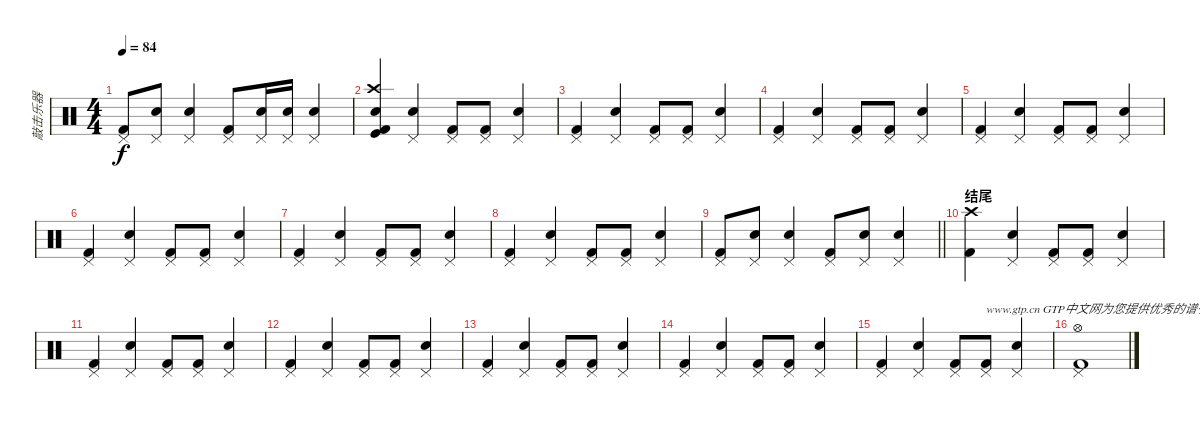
\track ("敲击乐器" "敲击乐器") {instrument percussion}
\staff {score}
\articulation defaults
\ts (4 4)
\tempo 84
\clef neutral
\ks c
("Kick (hit) 2" "Pedal Hi-Hat (hit)").8{dy f} ("Snare (hit) 2" "Pedal Hi-Hat (hit)").8 ("Snare (hit) 2" "Pedal Hi-Hat (hit)").4 ("Kick (hit) 2" "Pedal Hi-Hat (hit)").8 ("Snare (hit) 2" "Pedal Hi-Hat (hit)").16 ("Snare (hit) 2" "Pedal Hi-Hat (hit)").16 ("Snare (hit) 2" "Pedal Hi-Hat (hit)").4 |
("Kick (hit) 2" "Crash high (hit)" "Kick (hit)" "Metronome (bell)").4 ("Snare (hit) 2" "Pedal Hi-Hat (hit)").4 ("Kick (hit) 2" "Pedal Hi-Hat (hit)").8 ("Kick (hit) 2" "Pedal Hi-Hat (hit)").8 ("Snare (hit) 2" "Pedal Hi-Hat (hit)").4 |
("Kick (hit) 2" "Pedal Hi-Hat (hit)").4 ("Snare (hit) 2" "Pedal Hi-Hat (hit)").4 ("Kick (hit) 2" "Pedal Hi-Hat (hit)").8 ("Kick (hit) 2" "Pedal Hi-Hat (hit)").8 ("Snare (hit) 2" "Pedal Hi-Hat (hit)").4 |
("Kick (hit) 2" "Pedal Hi-Hat (hit)").4 ("Snare (hit) 2" "Pedal Hi-Hat (hit)").4 ("Kick (hit) 2" "Pedal Hi-Hat (hit)").8 ("Kick (hit) 2" "Pedal Hi-Hat (hit)").8 ("Snare (hit) 2" "Pedal Hi-Hat (hit)").4 |
("Kick (hit) 2" "Pedal Hi-Hat (hit)").4 ("Snare (hit) 2" "Pedal Hi-Hat (hit)").4 ("Kick (hit) 2" "Pedal Hi-Hat (hit)").8 ("Kick (hit) 2" "Pedal Hi-Hat (hit)").8 ("Snare (hit) 2" "Pedal Hi-Hat (hit)").4 |
("Kick (hit) 2" "Pedal Hi-Hat (hit)").4 ("Snare (hit) 2" "Pedal Hi-Hat (hit)").4 ("Kick (hit) 2" "Pedal Hi-Hat (hit)").8 ("Kick (hit) 2" "Pedal Hi-Hat (hit)").8 ("Snare (hit) 2" "Pedal Hi-Hat (hit)").4 |
("Kick (hit) 2" "Pedal Hi-Hat (hit)").4 ("Snare (hit) 2" "Pedal Hi-Hat (hit)").4 ("Kick (hit) 2" "Pedal Hi-Hat (hit)").8 ("Kick (hit) 2" "Pedal Hi-Hat (hit)").8 ("Snare (hit) 2" "Pedal Hi-Hat (hit)").4 |
("Kick (hit) 2" "Pedal Hi-Hat (hit)").4 ("Snare (hit) 2" "Pedal Hi-Hat (hit)").4 ("Kick (hit) 2" "Pedal Hi-Hat (hit)").8 ("Kick (hit) 2" "Pedal Hi-Hat (hit)").8 ("Snare (hit) 2" "Pedal Hi-Hat (hit)").4 |
\barLineRight lightlight
("Kick (hit) 2" "Pedal Hi-Hat (hit)").8 ("Snare (hit) 2" "Pedal Hi-Hat (hit)").8 ("Snare (hit) 2" "Pedal Hi-Hat (hit)").4 ("Kick (hit) 2" "Pedal Hi-Hat (hit)").8 ("Snare (hit) 2" "Pedal Hi-Hat (hit)").8 ("Snare (hit) 2" "Pedal Hi-Hat (hit)").4 |
\section ("" "结尾")
("Kick (hit) 2" "Crash high (hit)").4 ("Snare (hit) 2" "Pedal Hi-Hat (hit)").4 ("Kick (hit) 2" "Pedal Hi-Hat (hit)").8 ("Kick (hit) 2" "Pedal Hi-Hat (hit)").8 ("Snare (hit) 2" "Pedal Hi-Hat (hit)").4 |
("Kick (hit) 2" "Pedal Hi-Hat (hit)").4 ("Snare (hit) 2" "Pedal Hi-Hat (hit)").4 ("Kick (hit) 2" "Pedal Hi-Hat (hit)").8 ("Kick (hit) 2" "Pedal Hi-Hat (hit)").8 ("Snare (hit) 2" "Pedal Hi-Hat (hit)").4 |
("Kick (hit) 2" "Pedal Hi-Hat (hit)").4 ("Snare (hit) 2" "Pedal Hi-Hat (hit)").4 ("Kick (hit) 2" "Pedal Hi-Hat (hit)").8 ("Kick (hit) 2" "Pedal Hi-Hat (hit)").8 ("Snare (hit) 2" "Pedal Hi-Hat (hit)").4 |
("Kick (hit) 2" "Pedal Hi-Hat (hit)").4 ("Snare (hit) 2" "Pedal Hi-Hat (hit)").4 ("Kick (hit) 2" "Pedal Hi-Hat (hit)").8 ("Kick (hit) 2" "Pedal Hi-Hat (hit)").8 ("Snare (hit) 2" "Pedal Hi-Hat (hit)").4 |
("Kick (hit) 2" "Pedal Hi-Hat (hit)").4 ("Snare (hit) 2" "Pedal Hi-Hat (hit)").4 ("Kick (hit) 2" "Pedal Hi-Hat (hit)").8 ("Kick (hit) 2" "Pedal Hi-Hat (hit)").8 ("Snare (hit) 2" "Pedal Hi-Hat (hit)").4 |
("Kick (hit) 2" "Pedal Hi-Hat (hit)").4 ("Snare (hit) 2" "Pedal Hi-Hat (hit)").4 ("Kick (hit) 2" "Pedal Hi-Hat (hit)").8 ("Kick (hit) 2" "Pedal Hi-Hat (hit)").8{txt "www.gtp.cn GTP中文网为您提供优秀的谱子"} ("Snare (hit) 2" "Pedal Hi-Hat (hit)").4 |
("Kick (hit) 2" "Pedal Hi-Hat (hit)" "Hi-Hat (open)").1
